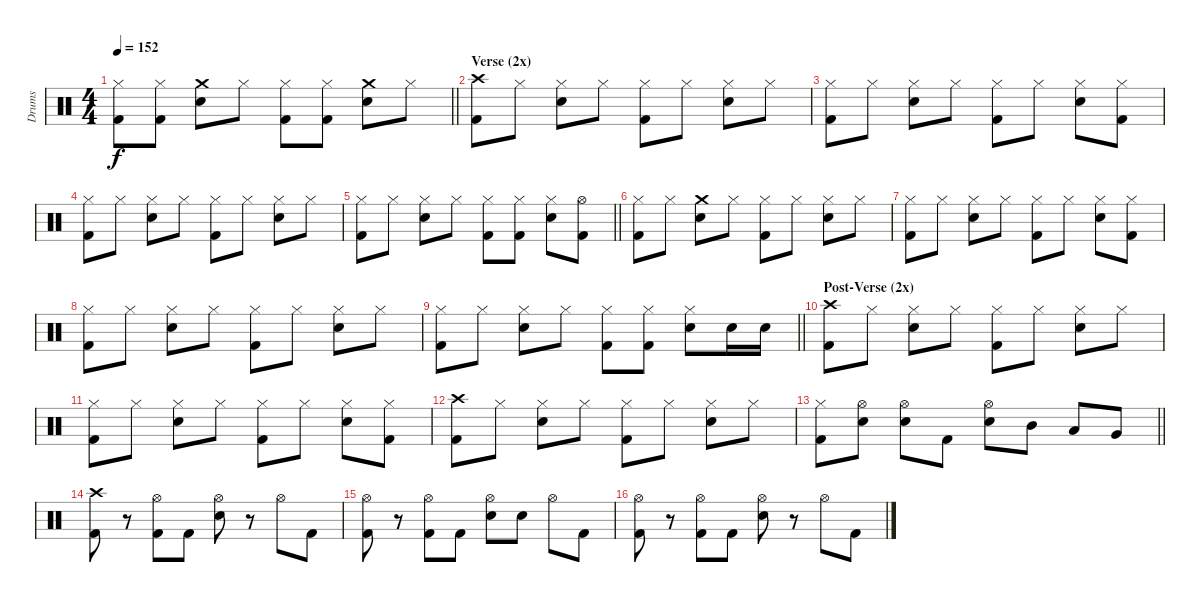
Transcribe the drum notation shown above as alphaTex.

\track ("Drums" "Drums") {instrument percussion}
\staff
\articulation defaults
\ts (4 4)
\tempo 152
\clef neutral
\barLineRight lightlight
\ks c
("Hi-Hat (closed)" "Kick (hit) 2").8{dy f} ("Hi-Hat (closed)" "Kick (hit) 2").8 ("Crash medium (hit)" "Electric Snare (hit)").8 "Hi-Hat (closed)".8 ("Hi-Hat (closed)" "Kick (hit) 2").8 ("Hi-Hat (closed)" "Kick (hit) 2").8 ("Crash medium (hit)" "Electric Snare (hit)").8 "Hi-Hat (closed)".8 |
\section ("" "Verse (2x)")
("Crash high (hit)" "Kick (hit) 2").8 "Hi-Hat (closed)".8 ("Hi-Hat (closed)" "Electric Snare (hit)").8 "Hi-Hat (closed)".8 ("Hi-Hat (closed)" "Kick (hit) 2").8 "Hi-Hat (closed)".8 ("Hi-Hat (closed)" "Electric Snare (hit)").8 "Hi-Hat (closed)".8 |
("Hi-Hat (closed)" "Kick (hit) 2").8 "Hi-Hat (closed)".8 ("Hi-Hat (closed)" "Electric Snare (hit)").8 "Hi-Hat (closed)".8 ("Hi-Hat (closed)" "Kick (hit) 2").8 "Hi-Hat (closed)".8 ("Hi-Hat (closed)" "Electric Snare (hit)").8 ("Hi-Hat (closed)" "Kick (hit) 2").8 |
("Hi-Hat (closed)" "Kick (hit) 2").8 "Hi-Hat (closed)".8 ("Hi-Hat (closed)" "Electric Snare (hit)").8 "Hi-Hat (closed)".8 ("Hi-Hat (closed)" "Kick (hit) 2").8 "Hi-Hat (closed)".8 ("Hi-Hat (closed)" "Electric Snare (hit)").8 "Hi-Hat (closed)".8 |
\barLineRight lightlight
("Hi-Hat (closed)" "Kick (hit) 2").8 "Hi-Hat (closed)".8 ("Hi-Hat (closed)" "Electric Snare (hit)").8 "Hi-Hat (closed)".8 ("Hi-Hat (closed)" "Kick (hit) 2").8 ("Hi-Hat (closed)" "Kick (hit) 2").8 ("Hi-Hat (closed)" "Electric Snare (hit)").8 ("Hi-Hat (open)" "Kick (hit) 2").8 |
("Hi-Hat (closed)" "Kick (hit) 2").8 "Hi-Hat (closed)".8 ("Crash medium (hit)" "Electric Snare (hit)").8 "Hi-Hat (closed)".8 ("Hi-Hat (closed)" "Kick (hit) 2").8 "Hi-Hat (closed)".8 ("Hi-Hat (closed)" "Electric Snare (hit)").8 "Hi-Hat (closed)".8 |
("Hi-Hat (closed)" "Kick (hit) 2").8 "Hi-Hat (closed)".8 ("Hi-Hat (closed)" "Electric Snare (hit)").8 "Hi-Hat (closed)".8 ("Hi-Hat (closed)" "Kick (hit) 2").8 "Hi-Hat (closed)".8 ("Hi-Hat (closed)" "Electric Snare (hit)").8 ("Hi-Hat (closed)" "Kick (hit) 2").8 |
("Hi-Hat (closed)" "Kick (hit) 2").8 "Hi-Hat (closed)".8 ("Hi-Hat (closed)" "Electric Snare (hit)").8 "Hi-Hat (closed)".8 ("Hi-Hat (closed)" "Kick (hit) 2").8 "Hi-Hat (closed)".8 ("Hi-Hat (closed)" "Electric Snare (hit)").8 "Hi-Hat (closed)".8 |
\barLineRight lightlight
("Hi-Hat (closed)" "Kick (hit) 2").8 "Hi-Hat (closed)".8 ("Hi-Hat (closed)" "Electric Snare (hit)").8 "Hi-Hat (closed)".8 ("Hi-Hat (closed)" "Kick (hit) 2").8 ("Hi-Hat (closed)" "Kick (hit) 2").8 ("Hi-Hat (closed)" "Electric Snare (hit)").8 "Electric Snare (hit)".16 "Electric Snare (hit)".16 |
\section ("" "Post-Verse (2x)")
("Crash high (hit)" "Kick (hit) 2").8 "Hi-Hat (closed)".8 ("Hi-Hat (closed)" "Electric Snare (hit)").8 "Hi-Hat (closed)".8 ("Hi-Hat (closed)" "Kick (hit) 2").8 "Hi-Hat (closed)".8 ("Hi-Hat (closed)" "Electric Snare (hit)").8 "Hi-Hat (closed)".8 |
("Hi-Hat (closed)" "Kick (hit) 2").8 "Hi-Hat (closed)".8 ("Hi-Hat (closed)" "Electric Snare (hit)").8 "Hi-Hat (closed)".8 ("Hi-Hat (closed)" "Kick (hit) 2").8 "Hi-Hat (closed)".8 ("Hi-Hat (closed)" "Electric Snare (hit)").8 ("Hi-Hat (closed)" "Kick (hit) 2").8 |
("Crash high (hit)" "Kick (hit) 2").8 "Hi-Hat (closed)".8 ("Hi-Hat (closed)" "Electric Snare (hit)").8 "Hi-Hat (closed)".8 ("Hi-Hat (closed)" "Kick (hit) 2").8 "Hi-Hat (closed)".8 ("Hi-Hat (closed)" "Electric Snare (hit)").8 "Hi-Hat (closed)".8 |
\barLineRight lightlight
("Hi-Hat (closed)" "Kick (hit) 2").8 ("Hi-Hat (open)" "Electric Snare (hit)").8 ("Hi-Hat (open)" "Electric Snare (hit)").8 "Kick (hit) 2".8 ("Hi-Hat (open)" "Electric Snare (hit)").8 "Mid Tom (hit)".8 "Low Tom (hit)".8 "Very Low Tom (hit)".8 |
("Crash high (hit)" "Kick (hit) 2").8 r.8 ("Hi-Hat (open)" "Kick (hit) 2").8 "Kick (hit) 2".8 ("Hi-Hat (open)" "Electric Snare (hit)").8 r.8 "Hi-Hat (open)".8 "Kick (hit) 2".8 |
("Hi-Hat (open)" "Kick (hit) 2").8 r.8 ("Hi-Hat (open)" "Kick (hit) 2").8 "Kick (hit) 2".8 ("Hi-Hat (open)" "Electric Snare (hit)").8 "Electric Snare (hit)".8 "Hi-Hat (open)".8 "Kick (hit) 2".8 |
("Hi-Hat (open)" "Kick (hit) 2").8 r.8 ("Hi-Hat (open)" "Kick (hit) 2").8 "Kick (hit) 2".8 ("Hi-Hat (open)" "Electric Snare (hit)").8 r.8 "Hi-Hat (open)".8 "Kick (hit) 2".8
